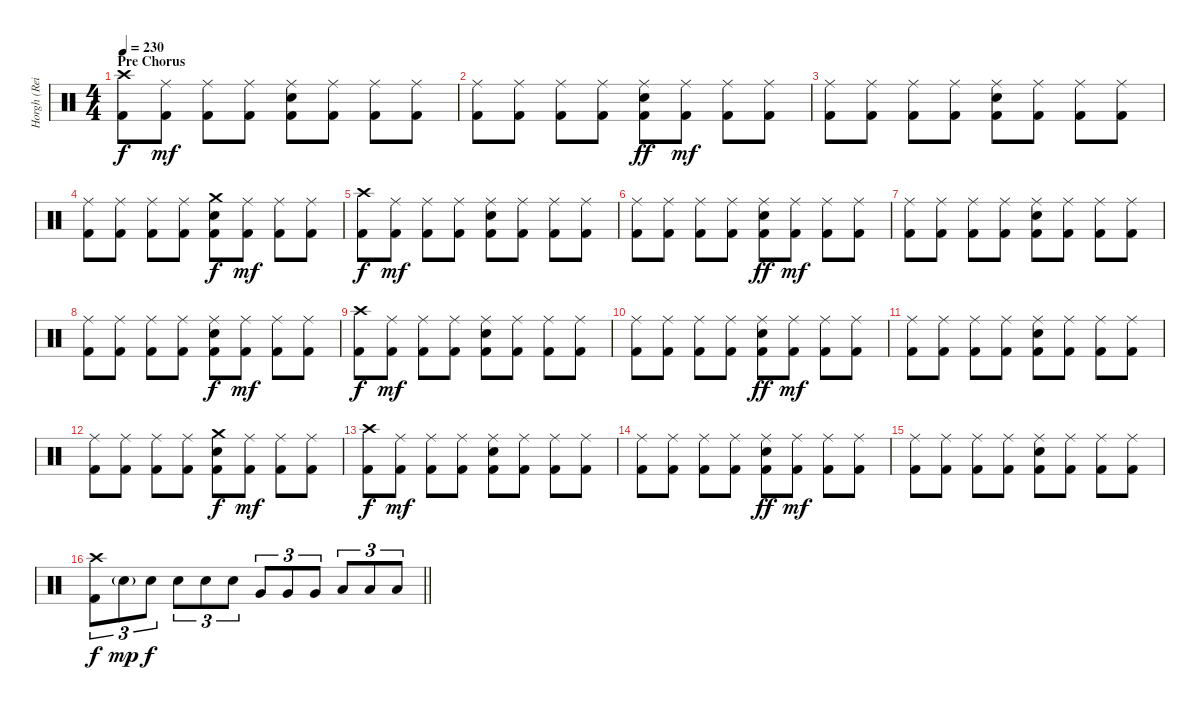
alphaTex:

\track ("Horgh (Reidar Horghagen)" "Horgh (Rei") {instrument percussion}
\staff {score}
\articulation defaults
\ts (4 4)
\section ("" "Pre Chorus")
\tempo 230
\clef neutral
\ks c
("Crash high (hit)" "Kick (hit) 2").8{dy f} ("Ride (middle)" "Kick (hit) 2").8{dy mf} ("Ride (middle)" "Kick (hit) 2").8 ("Ride (middle)" "Kick (hit) 2").8 ("Ride (middle)" "Snare (hit) 2" "Kick (hit) 2").8 ("Ride (middle)" "Kick (hit) 2").8 ("Ride (middle)" "Kick (hit) 2").8 ("Ride (middle)" "Kick (hit) 2").8 |
("Ride (middle)" "Kick (hit) 2").8 ("Ride (middle)" "Kick (hit) 2").8 ("Ride (middle)" "Kick (hit) 2").8 ("Ride (middle)" "Kick (hit) 2").8 ("Ride (middle)" "Snare (hit) 2" "Kick (hit) 2").8{dy ff} ("Ride (middle)" "Kick (hit) 2").8{dy mf} ("Ride (middle)" "Kick (hit) 2").8 ("Ride (middle)" "Kick (hit) 2").8 |
("Ride (middle)" "Kick (hit) 2").8 ("Ride (middle)" "Kick (hit) 2").8 ("Ride (middle)" "Kick (hit) 2").8 ("Ride (middle)" "Kick (hit) 2").8 ("Ride (middle)" "Snare (hit) 2" "Kick (hit) 2").8 ("Ride (middle)" "Kick (hit) 2").8 ("Ride (middle)" "Kick (hit) 2").8 ("Ride (middle)" "Kick (hit) 2").8 |
("Ride (middle)" "Kick (hit) 2").8 ("Ride (middle)" "Kick (hit) 2").8 ("Ride (middle)" "Kick (hit) 2").8 ("Ride (middle)" "Kick (hit) 2").8 ("Crash medium (hit)" "Snare (hit) 2" "Kick (hit) 2").8{dy f} ("Ride (middle)" "Kick (hit) 2").8{dy mf} ("Ride (middle)" "Kick (hit) 2").8 ("Ride (middle)" "Kick (hit) 2").8 |
("Crash high (hit)" "Kick (hit) 2").8{dy f} ("Ride (middle)" "Kick (hit) 2").8{dy mf} ("Ride (middle)" "Kick (hit) 2").8 ("Ride (middle)" "Kick (hit) 2").8 ("Ride (middle)" "Snare (hit) 2" "Kick (hit) 2").8 ("Ride (middle)" "Kick (hit) 2").8 ("Ride (middle)" "Kick (hit) 2").8 ("Ride (middle)" "Kick (hit) 2").8 |
("Ride (middle)" "Kick (hit) 2").8 ("Ride (middle)" "Kick (hit) 2").8 ("Ride (middle)" "Kick (hit) 2").8 ("Ride (middle)" "Kick (hit) 2").8 ("Ride (middle)" "Snare (hit) 2" "Kick (hit) 2").8{dy ff} ("Ride (middle)" "Kick (hit) 2").8{dy mf} ("Ride (middle)" "Kick (hit) 2").8 ("Ride (middle)" "Kick (hit) 2").8 |
("Ride (middle)" "Kick (hit) 2").8 ("Ride (middle)" "Kick (hit) 2").8 ("Ride (middle)" "Kick (hit) 2").8 ("Ride (middle)" "Kick (hit) 2").8 ("Ride (middle)" "Snare (hit) 2" "Kick (hit) 2").8 ("Ride (middle)" "Kick (hit) 2").8 ("Ride (middle)" "Kick (hit) 2").8 ("Ride (middle)" "Kick (hit) 2").8 |
("Ride (middle)" "Kick (hit) 2").8 ("Ride (middle)" "Kick (hit) 2").8 ("Ride (middle)" "Kick (hit) 2").8 ("Ride (middle)" "Kick (hit) 2").8 ("Ride (middle)" "Snare (hit) 2" "Kick (hit) 2").8{dy f} ("Ride (middle)" "Kick (hit) 2").8{dy mf} ("Ride (middle)" "Kick (hit) 2").8 ("Ride (middle)" "Kick (hit) 2").8 |
("Crash high (hit)" "Kick (hit) 2").8{dy f} ("Ride (middle)" "Kick (hit) 2").8{dy mf} ("Ride (middle)" "Kick (hit) 2").8 ("Ride (middle)" "Kick (hit) 2").8 ("Ride (middle)" "Snare (hit) 2" "Kick (hit) 2").8 ("Ride (middle)" "Kick (hit) 2").8 ("Ride (middle)" "Kick (hit) 2").8 ("Ride (middle)" "Kick (hit) 2").8 |
("Ride (middle)" "Kick (hit) 2").8 ("Ride (middle)" "Kick (hit) 2").8 ("Ride (middle)" "Kick (hit) 2").8 ("Ride (middle)" "Kick (hit) 2").8 ("Ride (middle)" "Snare (hit) 2" "Kick (hit) 2").8{dy ff} ("Ride (middle)" "Kick (hit) 2").8{dy mf} ("Ride (middle)" "Kick (hit) 2").8 ("Ride (middle)" "Kick (hit) 2").8 |
("Ride (middle)" "Kick (hit) 2").8 ("Ride (middle)" "Kick (hit) 2").8 ("Ride (middle)" "Kick (hit) 2").8 ("Ride (middle)" "Kick (hit) 2").8 ("Ride (middle)" "Snare (hit) 2" "Kick (hit) 2").8 ("Ride (middle)" "Kick (hit) 2").8 ("Ride (middle)" "Kick (hit) 2").8 ("Ride (middle)" "Kick (hit) 2").8 |
("Ride (middle)" "Kick (hit) 2").8 ("Ride (middle)" "Kick (hit) 2").8 ("Ride (middle)" "Kick (hit) 2").8 ("Ride (middle)" "Kick (hit) 2").8 ("Crash medium (hit)" "Snare (hit) 2" "Kick (hit) 2").8{dy f} ("Ride (middle)" "Kick (hit) 2").8{dy mf} ("Ride (middle)" "Kick (hit) 2").8 ("Ride (middle)" "Kick (hit) 2").8 |
("Crash high (hit)" "Kick (hit) 2").8{dy f} ("Ride (middle)" "Kick (hit) 2").8{dy mf} ("Ride (middle)" "Kick (hit) 2").8 ("Ride (middle)" "Kick (hit) 2").8 ("Ride (middle)" "Snare (hit) 2" "Kick (hit) 2").8 ("Ride (middle)" "Kick (hit) 2").8 ("Ride (middle)" "Kick (hit) 2").8 ("Ride (middle)" "Kick (hit) 2").8 |
("Ride (middle)" "Kick (hit) 2").8 ("Ride (middle)" "Kick (hit) 2").8 ("Ride (middle)" "Kick (hit) 2").8 ("Ride (middle)" "Kick (hit) 2").8 ("Ride (middle)" "Snare (hit) 2" "Kick (hit) 2").8{dy ff} ("Ride (middle)" "Kick (hit) 2").8{dy mf} ("Ride (middle)" "Kick (hit) 2").8 ("Ride (middle)" "Kick (hit) 2").8 |
("Ride (middle)" "Kick (hit) 2").8 ("Ride (middle)" "Kick (hit) 2").8 ("Ride (middle)" "Kick (hit) 2").8 ("Ride (middle)" "Kick (hit) 2").8 ("Ride (middle)" "Snare (hit) 2" "Kick (hit) 2").8 ("Ride (middle)" "Kick (hit) 2").8 ("Ride (middle)" "Kick (hit) 2").8 ("Ride (middle)" "Kick (hit) 2").8 |
\barLineRight lightlight
("Crash high (hit)" "Kick (hit) 2").8{tu (3 2) dy f} "Snare (hit) 2"{g}.8{tu (3 2) dy mp} "Snare (hit) 2".8{tu (3 2) dy f} "Snare (hit) 2".8{tu (3 2)} "Snare (hit) 2".8{tu (3 2)} "Snare (hit) 2".8{tu (3 2)} "Very Low Tom (hit)".8{tu (3 2)} "Very Low Tom (hit)".8{tu (3 2)} "Very Low Tom (hit)".8{tu (3 2)} "Low Floor Tom (hit)".8{tu (3 2)} "Low Floor Tom (hit)".8{tu (3 2)} "Low Floor Tom (hit)".8{tu (3 2)}
